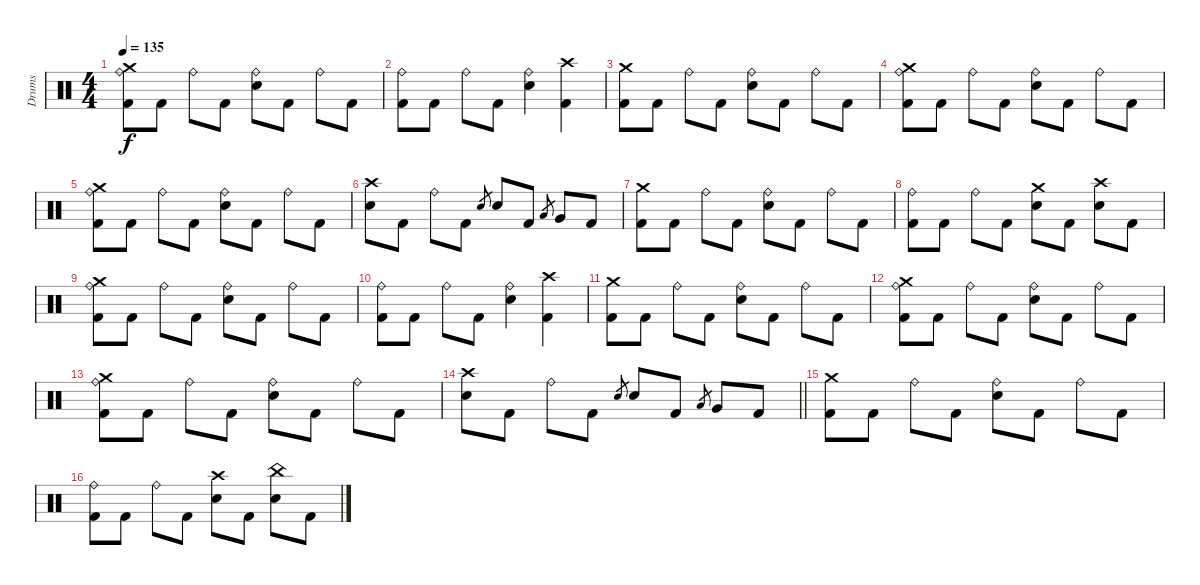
\track ("Drums" "Drums") {instrument percussion}
\staff {score}
\articulation defaults
\ts (4 4)
\tempo 135
\clef neutral
\ks c
("Crash medium (hit)" "Ride (bell)" "Kick (hit) 2").8{dy f} "Kick (hit) 2".8 "Ride (bell)".8 "Kick (hit) 2".8 ("Ride (bell)" "Snare (hit) 2").8 "Kick (hit) 2".8 "Ride (bell)".8 "Kick (hit) 2".8 |
("Ride (bell)" "Kick (hit) 2").8 "Kick (hit) 2".8 "Ride (bell)".8 "Kick (hit) 2".8 ("Ride (bell)" "Snare (hit) 2").4 ("Crash high (hit)" "Kick (hit) 2").4 |
("Crash medium (hit)" "Kick (hit) 2").8 "Kick (hit) 2".8 "Ride (bell)".8 "Kick (hit) 2".8 ("Ride (bell)" "Snare (hit) 2").8 "Kick (hit) 2".8 "Ride (bell)".8 "Kick (hit) 2".8 |
("Crash medium (hit)" "Ride (bell)" "Kick (hit) 2").8 "Kick (hit) 2".8 "Ride (bell)".8 "Kick (hit) 2".8 ("Ride (bell)" "Snare (hit) 2").8 "Kick (hit) 2".8 "Ride (bell)".8 "Kick (hit) 2".8 |
("Crash medium (hit)" "Ride (bell)" "Kick (hit) 2").8 "Kick (hit) 2".8 "Ride (bell)".8 "Kick (hit) 2".8 ("Ride (bell)" "Snare (hit) 2").8 "Kick (hit) 2".8 "Ride (bell)".8 "Kick (hit) 2".8 |
("Crash high (hit)" "Snare (hit) 2").8 "Kick (hit) 2".8 "Ride (bell)".8 "Kick (hit) 2".8 "Snare (hit) 2".8{gr} "Snare (hit) 2".8 "Kick (hit) 2".8 "Low Tom (hit)".8{gr} "Very Low Tom (hit)".8 "Kick (hit) 2".8 |
("Crash medium (hit)" "Kick (hit) 2").8 "Kick (hit) 2".8 "Ride (bell)".8 "Kick (hit) 2".8 ("Ride (bell)" "Snare (hit) 2").8 "Kick (hit) 2".8 "Ride (bell)".8 "Kick (hit) 2".8 |
("Ride (bell)" "Kick (hit) 2").8 "Kick (hit) 2".8 "Ride (bell)".8 "Kick (hit) 2".8 ("Crash medium (hit)" "Snare (hit) 2").8 "Kick (hit) 2".8 ("Crash high (hit)" "Snare (hit) 2").8 "Kick (hit) 2".8 |
("Crash medium (hit)" "Ride (bell)" "Kick (hit) 2").8 "Kick (hit) 2".8 "Ride (bell)".8 "Kick (hit) 2".8 ("Ride (bell)" "Snare (hit) 2").8 "Kick (hit) 2".8 "Ride (bell)".8 "Kick (hit) 2".8 |
("Ride (bell)" "Kick (hit) 2").8 "Kick (hit) 2".8 "Ride (bell)".8 "Kick (hit) 2".8 ("Ride (bell)" "Snare (hit) 2").4 ("Crash high (hit)" "Kick (hit) 2").4 |
("Crash medium (hit)" "Kick (hit) 2").8 "Kick (hit) 2".8 "Ride (bell)".8 "Kick (hit) 2".8 ("Ride (bell)" "Snare (hit) 2").8 "Kick (hit) 2".8 "Ride (bell)".8 "Kick (hit) 2".8 |
("Crash medium (hit)" "Ride (bell)" "Kick (hit) 2").8 "Kick (hit) 2".8 "Ride (bell)".8 "Kick (hit) 2".8 ("Ride (bell)" "Snare (hit) 2").8 "Kick (hit) 2".8 "Ride (bell)".8 "Kick (hit) 2".8 |
("Crash medium (hit)" "Ride (bell)" "Kick (hit) 2").8 "Kick (hit) 2".8 "Ride (bell)".8 "Kick (hit) 2".8 ("Ride (bell)" "Snare (hit) 2").8 "Kick (hit) 2".8 "Ride (bell)".8 "Kick (hit) 2".8 |
\barLineRight lightlight
("Crash high (hit)" "Snare (hit) 2").8 "Kick (hit) 2".8 "Ride (bell)".8 "Kick (hit) 2".8 "Snare (hit) 2".8{gr} "Snare (hit) 2".8 "Kick (hit) 2".8 "Low Tom (hit)".8{gr} "Very Low Tom (hit)".8 "Kick (hit) 2".8 |
("Crash medium (hit)" "Kick (hit) 2").8 "Kick (hit) 2".8 "Ride (bell)".8 "Kick (hit) 2".8 ("Ride (bell)" "Snare (hit) 2").8 "Kick (hit) 2".8 "Ride (bell)".8 "Kick (hit) 2".8 |
("Ride (bell)" "Kick (hit) 2").8 "Kick (hit) 2".8 "Ride (bell)".8 "Kick (hit) 2".8 ("Crash high (hit)" "Snare (hit) 2").8 "Kick (hit) 2".8 ("China (hit)" "Snare (hit) 2").8 "Kick (hit) 2".8
